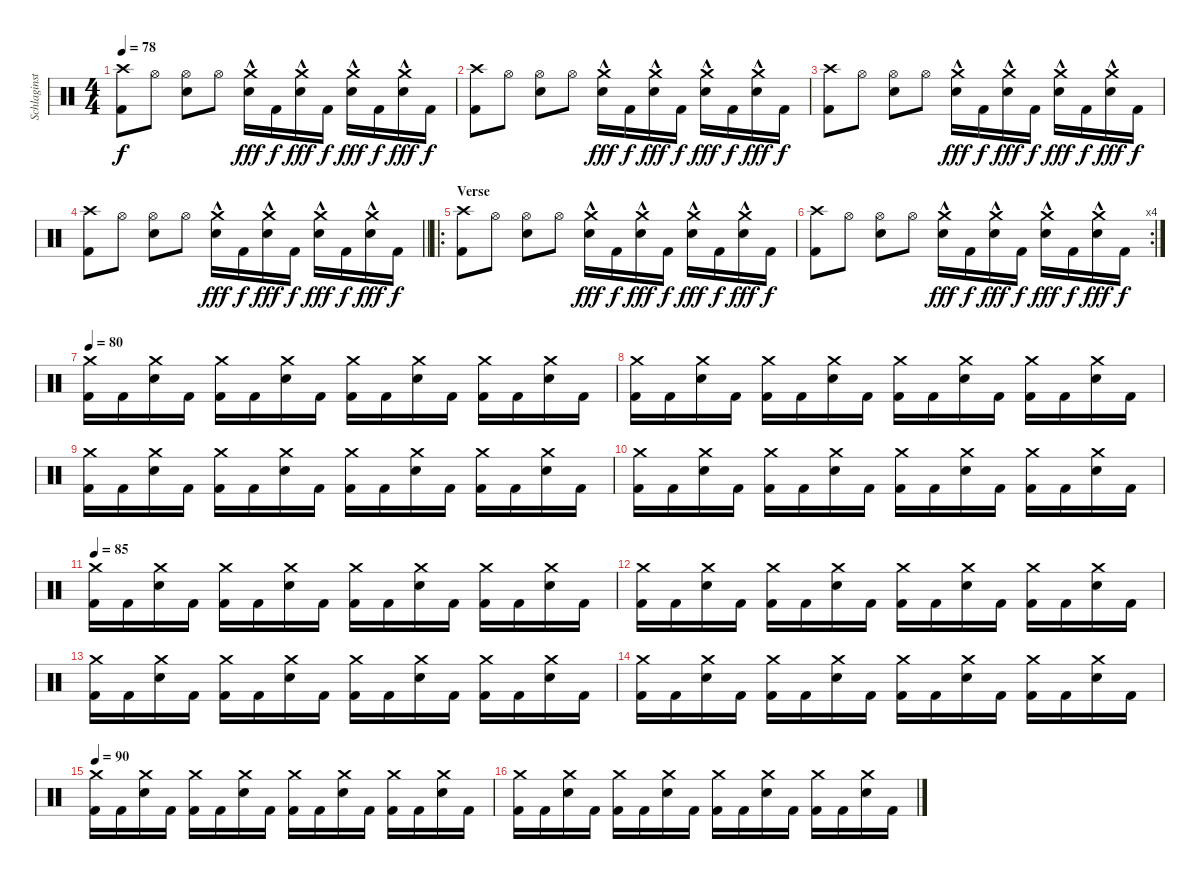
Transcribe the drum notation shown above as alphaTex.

\track ("Schlaginstrumente - Auswahl" "Schlaginst") {instrument percussion}
\staff {score}
\articulation defaults
\ts (4 4)
\tempo 78
\clef neutral
\ks c
("Crash high (hit)" "Kick (hit) 2").8{dy f} "Hi-Hat (open)".8 ("Hi-Hat (open)" "Snare (hit) 2").8 "Hi-Hat (open)".8 ("Crash medium (hit)" "Snare (hit) 2"{hac}).16{dy fff} "Kick (hit) 2".16{dy f} ("Crash medium (hit)" "Snare (hit) 2"{hac}).16{dy fff} "Kick (hit) 2".16{dy f} ("Crash medium (hit)" "Snare (hit) 2"{hac}).16{dy fff} "Kick (hit) 2".16{dy f} ("Crash medium (hit)" "Snare (hit) 2"{hac}).16{dy fff} "Kick (hit) 2".16{dy f} |
("Crash high (hit)" "Kick (hit) 2").8 "Hi-Hat (open)".8 ("Hi-Hat (open)" "Snare (hit) 2").8 "Hi-Hat (open)".8 ("Crash medium (hit)" "Snare (hit) 2"{hac}).16{dy fff} "Kick (hit) 2".16{dy f} ("Crash medium (hit)" "Snare (hit) 2"{hac}).16{dy fff} "Kick (hit) 2".16{dy f} ("Crash medium (hit)" "Snare (hit) 2"{hac}).16{dy fff} "Kick (hit) 2".16{dy f} ("Crash medium (hit)" "Snare (hit) 2"{hac}).16{dy fff} "Kick (hit) 2".16{dy f} |
("Crash high (hit)" "Kick (hit) 2").8 "Hi-Hat (open)".8 ("Hi-Hat (open)" "Snare (hit) 2").8 "Hi-Hat (open)".8 ("Crash medium (hit)" "Snare (hit) 2"{hac}).16{dy fff} "Kick (hit) 2".16{dy f} ("Crash medium (hit)" "Snare (hit) 2"{hac}).16{dy fff} "Kick (hit) 2".16{dy f} ("Crash medium (hit)" "Snare (hit) 2"{hac}).16{dy fff} "Kick (hit) 2".16{dy f} ("Crash medium (hit)" "Snare (hit) 2"{hac}).16{dy fff} "Kick (hit) 2".16{dy f} |
\barLineRight lightlight
("Crash high (hit)" "Kick (hit) 2").8 "Hi-Hat (open)".8 ("Hi-Hat (open)" "Snare (hit) 2").8 "Hi-Hat (open)".8 ("Crash medium (hit)" "Snare (hit) 2"{hac}).16{dy fff} "Kick (hit) 2".16{dy f} ("Crash medium (hit)" "Snare (hit) 2"{hac}).16{dy fff} "Kick (hit) 2".16{dy f} ("Crash medium (hit)" "Snare (hit) 2"{hac}).16{dy fff} "Kick (hit) 2".16{dy f} ("Crash medium (hit)" "Snare (hit) 2"{hac}).16{dy fff} "Kick (hit) 2".16{dy f} |
\ro
\section ("" "Verse")
("Crash high (hit)" "Kick (hit) 2").8 "Hi-Hat (open)".8 ("Hi-Hat (open)" "Snare (hit) 2").8 "Hi-Hat (open)".8 ("Crash medium (hit)" "Snare (hit) 2"{hac}).16{dy fff} "Kick (hit) 2".16{dy f} ("Crash medium (hit)" "Snare (hit) 2"{hac}).16{dy fff} "Kick (hit) 2".16{dy f} ("Crash medium (hit)" "Snare (hit) 2"{hac}).16{dy fff} "Kick (hit) 2".16{dy f} ("Crash medium (hit)" "Snare (hit) 2"{hac}).16{dy fff} "Kick (hit) 2".16{dy f} |
\rc 4
("Crash high (hit)" "Kick (hit) 2").8 "Hi-Hat (open)".8 ("Hi-Hat (open)" "Snare (hit) 2").8 "Hi-Hat (open)".8 ("Crash medium (hit)" "Snare (hit) 2"{hac}).16{dy fff} "Kick (hit) 2".16{dy f} ("Crash medium (hit)" "Snare (hit) 2"{hac}).16{dy fff} "Kick (hit) 2".16{dy f} ("Crash medium (hit)" "Snare (hit) 2"{hac}).16{dy fff} "Kick (hit) 2".16{dy f} ("Crash medium (hit)" "Snare (hit) 2"{hac}).16{dy fff} "Kick (hit) 2".16{dy f} |
\tempo 80
("Crash medium (hit)" "Kick (hit) 2").16 "Kick (hit) 2".16 ("Crash medium (hit)" "Snare (hit) 2").16 "Kick (hit) 2".16 ("Crash medium (hit)" "Kick (hit) 2").16 "Kick (hit) 2".16 ("Crash medium (hit)" "Snare (hit) 2").16 "Kick (hit) 2".16 ("Crash medium (hit)" "Kick (hit) 2").16 "Kick (hit) 2".16 ("Crash medium (hit)" "Snare (hit) 2").16 "Kick (hit) 2".16 ("Crash medium (hit)" "Kick (hit) 2").16 "Kick (hit) 2".16 ("Crash medium (hit)" "Snare (hit) 2").16 "Kick (hit) 2".16 |
("Crash medium (hit)" "Kick (hit) 2").16 "Kick (hit) 2".16 ("Crash medium (hit)" "Snare (hit) 2").16 "Kick (hit) 2".16 ("Crash medium (hit)" "Kick (hit) 2").16 "Kick (hit) 2".16 ("Crash medium (hit)" "Snare (hit) 2").16 "Kick (hit) 2".16 ("Crash medium (hit)" "Kick (hit) 2").16 "Kick (hit) 2".16 ("Crash medium (hit)" "Snare (hit) 2").16 "Kick (hit) 2".16 ("Crash medium (hit)" "Kick (hit) 2").16 "Kick (hit) 2".16 ("Crash medium (hit)" "Snare (hit) 2").16 "Kick (hit) 2".16 |
("Crash medium (hit)" "Kick (hit) 2").16 "Kick (hit) 2".16 ("Crash medium (hit)" "Snare (hit) 2").16 "Kick (hit) 2".16 ("Crash medium (hit)" "Kick (hit) 2").16 "Kick (hit) 2".16 ("Crash medium (hit)" "Snare (hit) 2").16 "Kick (hit) 2".16 ("Crash medium (hit)" "Kick (hit) 2").16 "Kick (hit) 2".16 ("Crash medium (hit)" "Snare (hit) 2").16 "Kick (hit) 2".16 ("Crash medium (hit)" "Kick (hit) 2").16 "Kick (hit) 2".16 ("Crash medium (hit)" "Snare (hit) 2").16 "Kick (hit) 2".16 |
("Crash medium (hit)" "Kick (hit) 2").16 "Kick (hit) 2".16 ("Crash medium (hit)" "Snare (hit) 2").16 "Kick (hit) 2".16 ("Crash medium (hit)" "Kick (hit) 2").16 "Kick (hit) 2".16 ("Crash medium (hit)" "Snare (hit) 2").16 "Kick (hit) 2".16 ("Crash medium (hit)" "Kick (hit) 2").16 "Kick (hit) 2".16 ("Crash medium (hit)" "Snare (hit) 2").16 "Kick (hit) 2".16 ("Crash medium (hit)" "Kick (hit) 2").16 "Kick (hit) 2".16 ("Crash medium (hit)" "Snare (hit) 2").16 "Kick (hit) 2".16 |
\tempo 85
("Crash medium (hit)" "Kick (hit) 2").16 "Kick (hit) 2".16 ("Crash medium (hit)" "Snare (hit) 2").16 "Kick (hit) 2".16 ("Crash medium (hit)" "Kick (hit) 2").16 "Kick (hit) 2".16 ("Crash medium (hit)" "Snare (hit) 2").16 "Kick (hit) 2".16 ("Crash medium (hit)" "Kick (hit) 2").16 "Kick (hit) 2".16 ("Crash medium (hit)" "Snare (hit) 2").16 "Kick (hit) 2".16 ("Crash medium (hit)" "Kick (hit) 2").16 "Kick (hit) 2".16 ("Crash medium (hit)" "Snare (hit) 2").16 "Kick (hit) 2".16 |
("Crash medium (hit)" "Kick (hit) 2").16 "Kick (hit) 2".16 ("Crash medium (hit)" "Snare (hit) 2").16 "Kick (hit) 2".16 ("Crash medium (hit)" "Kick (hit) 2").16 "Kick (hit) 2".16 ("Crash medium (hit)" "Snare (hit) 2").16 "Kick (hit) 2".16 ("Crash medium (hit)" "Kick (hit) 2").16 "Kick (hit) 2".16 ("Crash medium (hit)" "Snare (hit) 2").16 "Kick (hit) 2".16 ("Crash medium (hit)" "Kick (hit) 2").16 "Kick (hit) 2".16 ("Crash medium (hit)" "Snare (hit) 2").16 "Kick (hit) 2".16 |
("Crash medium (hit)" "Kick (hit) 2").16 "Kick (hit) 2".16 ("Crash medium (hit)" "Snare (hit) 2").16 "Kick (hit) 2".16 ("Crash medium (hit)" "Kick (hit) 2").16 "Kick (hit) 2".16 ("Crash medium (hit)" "Snare (hit) 2").16 "Kick (hit) 2".16 ("Crash medium (hit)" "Kick (hit) 2").16 "Kick (hit) 2".16 ("Crash medium (hit)" "Snare (hit) 2").16 "Kick (hit) 2".16 ("Crash medium (hit)" "Kick (hit) 2").16 "Kick (hit) 2".16 ("Crash medium (hit)" "Snare (hit) 2").16 "Kick (hit) 2".16 |
("Crash medium (hit)" "Kick (hit) 2").16 "Kick (hit) 2".16 ("Crash medium (hit)" "Snare (hit) 2").16 "Kick (hit) 2".16 ("Crash medium (hit)" "Kick (hit) 2").16 "Kick (hit) 2".16 ("Crash medium (hit)" "Snare (hit) 2").16 "Kick (hit) 2".16 ("Crash medium (hit)" "Kick (hit) 2").16 "Kick (hit) 2".16 ("Crash medium (hit)" "Snare (hit) 2").16 "Kick (hit) 2".16 ("Crash medium (hit)" "Kick (hit) 2").16 "Kick (hit) 2".16 ("Crash medium (hit)" "Snare (hit) 2").16 "Kick (hit) 2".16 |
\tempo 90
("Crash medium (hit)" "Kick (hit) 2").16 "Kick (hit) 2".16 ("Crash medium (hit)" "Snare (hit) 2").16 "Kick (hit) 2".16 ("Crash medium (hit)" "Kick (hit) 2").16 "Kick (hit) 2".16 ("Crash medium (hit)" "Snare (hit) 2").16 "Kick (hit) 2".16 ("Crash medium (hit)" "Kick (hit) 2").16 "Kick (hit) 2".16 ("Crash medium (hit)" "Snare (hit) 2").16 "Kick (hit) 2".16 ("Crash medium (hit)" "Kick (hit) 2").16 "Kick (hit) 2".16 ("Crash medium (hit)" "Snare (hit) 2").16 "Kick (hit) 2".16 |
("Crash medium (hit)" "Kick (hit) 2").16 "Kick (hit) 2".16 ("Crash medium (hit)" "Snare (hit) 2").16 "Kick (hit) 2".16 ("Crash medium (hit)" "Kick (hit) 2").16 "Kick (hit) 2".16 ("Crash medium (hit)" "Snare (hit) 2").16 "Kick (hit) 2".16 ("Crash medium (hit)" "Kick (hit) 2").16 "Kick (hit) 2".16 ("Crash medium (hit)" "Snare (hit) 2").16 "Kick (hit) 2".16 ("Crash medium (hit)" "Kick (hit) 2").16 "Kick (hit) 2".16 ("Crash medium (hit)" "Snare (hit) 2").16 "Kick (hit) 2".16
